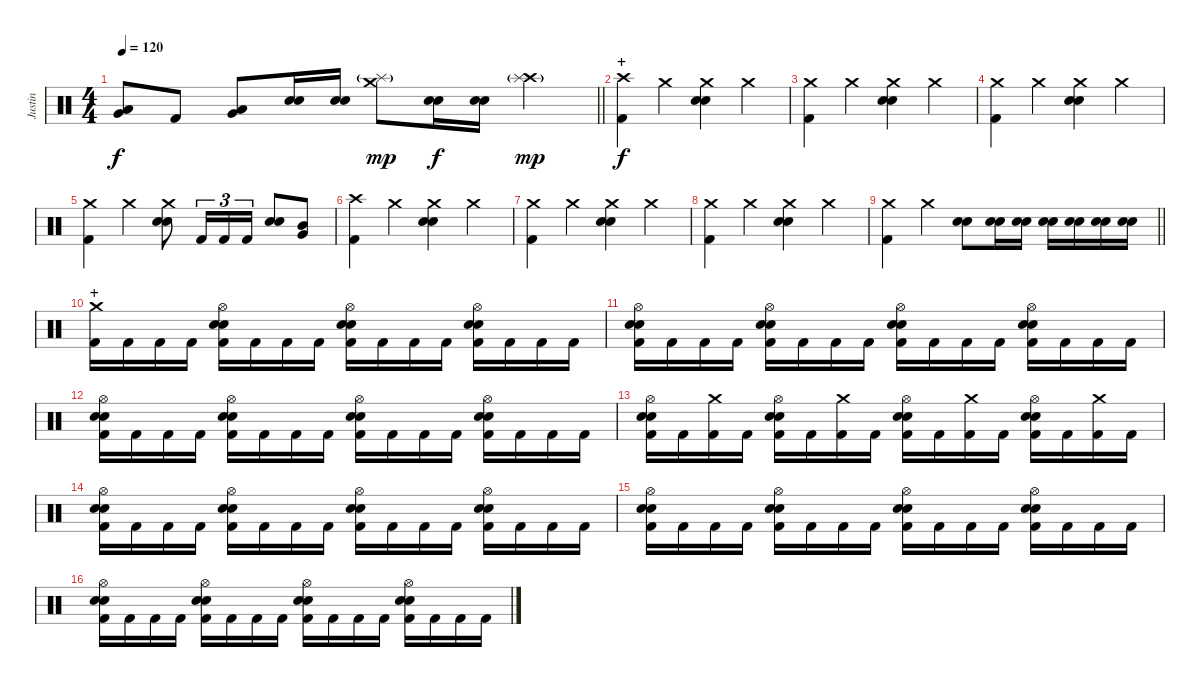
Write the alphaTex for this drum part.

\track ("Justin" "Justin") {instrument percussion}
\staff {score}
\articulation defaults
\ts (4 4)
\tempo 120
\clef neutral
\barLineRight lightlight
\ks c
("Low Tom (hit)" "Very Low Tom (hit)").8{dy f} "Kick (hit) 2".8 ("Very Low Tom (hit)" "Low Floor Tom (hit)").8 ("Electric Snare (hit)" "Snare (hit) 2").16 ("Electric Snare (hit)" "Snare (hit) 2").16 ("Crash medium (hit)" "Splash (hit)"{g}).8{dy mp} ("Electric Snare (hit)" "Snare (hit) 2").16{dy f} ("Electric Snare (hit)" "Snare (hit) 2").16 ("Crash high (hit)" "Splash (hit)"{g}).4{dy mp} |
\section ("" "+")
("Crash high (hit)" "Kick (hit) 2").4{dy f} "Crash medium (hit)".4 ("Crash medium (hit)" "Electric Snare (hit)" "Snare (hit) 2").4 "Crash medium (hit)".4 |
("Crash medium (hit)" "Kick (hit) 2").4 "Crash medium (hit)".4 ("Crash medium (hit)" "Electric Snare (hit)" "Snare (hit) 2").4 "Crash medium (hit)".4 |
("Crash medium (hit)" "Kick (hit) 2").4 "Crash medium (hit)".4 ("Crash medium (hit)" "Electric Snare (hit)" "Snare (hit) 2").4 "Crash medium (hit)".4 |
("Crash medium (hit)" "Kick (hit) 2").4 "Crash medium (hit)".4 ("Crash medium (hit)" "Electric Snare (hit)" "Snare (hit) 2").8 "Kick (hit) 2".16{tu (3 2)} "Kick (hit) 2".16{tu (3 2)} "Kick (hit) 2".16{tu (3 2)} ("Electric Snare (hit)" "Snare (hit) 2").8 ("Mid Tom (hit)" "Very Low Tom (hit)").8 |
("Crash high (hit)" "Kick (hit) 2").4 "Crash medium (hit)".4 ("Crash medium (hit)" "Electric Snare (hit)" "Snare (hit) 2").4 "Crash medium (hit)".4 |
("Crash medium (hit)" "Kick (hit) 2").4 "Crash medium (hit)".4 ("Crash medium (hit)" "Electric Snare (hit)" "Snare (hit) 2").4 "Crash medium (hit)".4 |
("Crash medium (hit)" "Kick (hit) 2").4 "Crash medium (hit)".4 ("Crash medium (hit)" "Electric Snare (hit)" "Snare (hit) 2").4 "Crash medium (hit)".4 |
\barLineRight lightlight
("Crash medium (hit)" "Kick (hit) 2").4 "Crash medium (hit)".4 ("Electric Snare (hit)" "Snare (hit) 2").8 ("Electric Snare (hit)" "Snare (hit) 2").16 ("Electric Snare (hit)" "Snare (hit) 2").16 ("Electric Snare (hit)" "Snare (hit) 2").16 ("Electric Snare (hit)" "Snare (hit) 2").16 ("Electric Snare (hit)" "Snare (hit) 2").16 ("Electric Snare (hit)" "Snare (hit) 2").16 |
\section ("" "+")
("Crash medium (hit)" "Kick (hit) 2").16 "Kick (hit) 2".16 "Kick (hit) 2".16 "Kick (hit) 2".16 ("Hi-Hat (open)" "Electric Snare (hit)" "Snare (hit) 2" "Kick (hit) 2").16 "Kick (hit) 2".16 "Kick (hit) 2".16 "Kick (hit) 2".16 ("Hi-Hat (open)" "Electric Snare (hit)" "Snare (hit) 2" "Kick (hit) 2").16 "Kick (hit) 2".16 "Kick (hit) 2".16 "Kick (hit) 2".16 ("Hi-Hat (open)" "Electric Snare (hit)" "Snare (hit) 2" "Kick (hit) 2").16 "Kick (hit) 2".16 "Kick (hit) 2".16 "Kick (hit) 2".16 |
("Hi-Hat (open)" "Electric Snare (hit)" "Snare (hit) 2" "Kick (hit) 2").16 "Kick (hit) 2".16 "Kick (hit) 2".16 "Kick (hit) 2".16 ("Hi-Hat (open)" "Electric Snare (hit)" "Snare (hit) 2" "Kick (hit) 2").16 "Kick (hit) 2".16 "Kick (hit) 2".16 "Kick (hit) 2".16 ("Hi-Hat (open)" "Electric Snare (hit)" "Snare (hit) 2" "Kick (hit) 2").16 "Kick (hit) 2".16 "Kick (hit) 2".16 "Kick (hit) 2".16 ("Hi-Hat (open)" "Electric Snare (hit)" "Snare (hit) 2" "Kick (hit) 2").16 "Kick (hit) 2".16 "Kick (hit) 2".16 "Kick (hit) 2".16 |
("Hi-Hat (open)" "Electric Snare (hit)" "Snare (hit) 2" "Kick (hit) 2").16 "Kick (hit) 2".16 "Kick (hit) 2".16 "Kick (hit) 2".16 ("Hi-Hat (open)" "Electric Snare (hit)" "Snare (hit) 2" "Kick (hit) 2").16 "Kick (hit) 2".16 "Kick (hit) 2".16 "Kick (hit) 2".16 ("Hi-Hat (open)" "Electric Snare (hit)" "Snare (hit) 2" "Kick (hit) 2").16 "Kick (hit) 2".16 "Kick (hit) 2".16 "Kick (hit) 2".16 ("Hi-Hat (open)" "Electric Snare (hit)" "Snare (hit) 2" "Kick (hit) 2").16 "Kick (hit) 2".16 "Kick (hit) 2".16 "Kick (hit) 2".16 |
("Hi-Hat (open)" "Electric Snare (hit)" "Snare (hit) 2" "Kick (hit) 2").16 "Kick (hit) 2".16 ("Crash medium (hit)" "Kick (hit) 2").16 "Kick (hit) 2".16 ("Hi-Hat (open)" "Electric Snare (hit)" "Snare (hit) 2" "Kick (hit) 2").16 "Kick (hit) 2".16 ("Crash medium (hit)" "Kick (hit) 2").16 "Kick (hit) 2".16 ("Hi-Hat (open)" "Electric Snare (hit)" "Snare (hit) 2" "Kick (hit) 2").16 "Kick (hit) 2".16 ("Crash medium (hit)" "Kick (hit) 2").16 "Kick (hit) 2".16 ("Hi-Hat (open)" "Electric Snare (hit)" "Snare (hit) 2" "Kick (hit) 2").16 "Kick (hit) 2".16 ("Crash medium (hit)" "Kick (hit) 2").16 "Kick (hit) 2".16 |
("Hi-Hat (open)" "Electric Snare (hit)" "Snare (hit) 2" "Kick (hit) 2").16 "Kick (hit) 2".16 "Kick (hit) 2".16 "Kick (hit) 2".16 ("Hi-Hat (open)" "Electric Snare (hit)" "Snare (hit) 2" "Kick (hit) 2").16 "Kick (hit) 2".16 "Kick (hit) 2".16 "Kick (hit) 2".16 ("Hi-Hat (open)" "Electric Snare (hit)" "Snare (hit) 2" "Kick (hit) 2").16 "Kick (hit) 2".16 "Kick (hit) 2".16 "Kick (hit) 2".16 ("Hi-Hat (open)" "Electric Snare (hit)" "Snare (hit) 2" "Kick (hit) 2").16 "Kick (hit) 2".16 "Kick (hit) 2".16 "Kick (hit) 2".16 |
("Hi-Hat (open)" "Electric Snare (hit)" "Snare (hit) 2" "Kick (hit) 2").16 "Kick (hit) 2".16 "Kick (hit) 2".16 "Kick (hit) 2".16 ("Hi-Hat (open)" "Electric Snare (hit)" "Snare (hit) 2" "Kick (hit) 2").16 "Kick (hit) 2".16 "Kick (hit) 2".16 "Kick (hit) 2".16 ("Hi-Hat (open)" "Electric Snare (hit)" "Snare (hit) 2" "Kick (hit) 2").16 "Kick (hit) 2".16 "Kick (hit) 2".16 "Kick (hit) 2".16 ("Hi-Hat (open)" "Electric Snare (hit)" "Snare (hit) 2" "Kick (hit) 2").16 "Kick (hit) 2".16 "Kick (hit) 2".16 "Kick (hit) 2".16 |
("Hi-Hat (open)" "Electric Snare (hit)" "Snare (hit) 2" "Kick (hit) 2").16 "Kick (hit) 2".16 "Kick (hit) 2".16 "Kick (hit) 2".16 ("Hi-Hat (open)" "Electric Snare (hit)" "Snare (hit) 2" "Kick (hit) 2").16 "Kick (hit) 2".16 "Kick (hit) 2".16 "Kick (hit) 2".16 ("Hi-Hat (open)" "Electric Snare (hit)" "Snare (hit) 2" "Kick (hit) 2").16 "Kick (hit) 2".16 "Kick (hit) 2".16 "Kick (hit) 2".16 ("Hi-Hat (open)" "Electric Snare (hit)" "Snare (hit) 2" "Kick (hit) 2").16 "Kick (hit) 2".16 "Kick (hit) 2".16 "Kick (hit) 2".16
